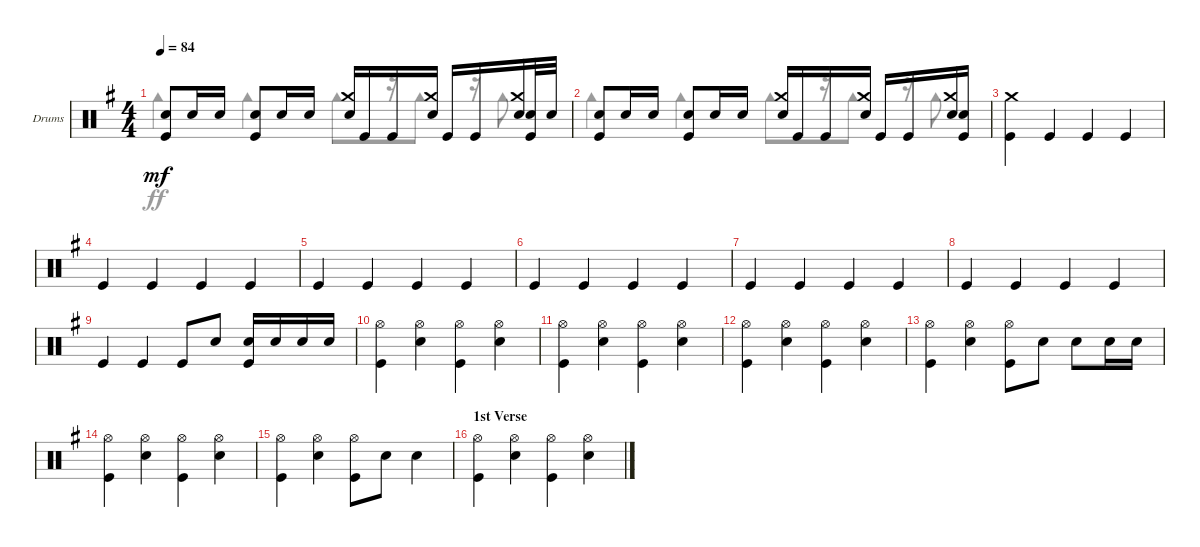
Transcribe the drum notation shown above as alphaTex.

\bracketExtendMode groupsimilarinstruments
\firstSystemTrackNameOrientation horizontal
\otherSystemsTrackNameOrientation horizontal
\track ("Drumkit" "Drums") {instrument percussion}
\staff {score}
\articulation defaults
\voice
\ts (4 4)
\tempo 84
\clef neutral
\scale
1.04288
\ks g
("Snare (hit) 2" "Kick (hit)").8{dy mf} "Snare (hit) 2".16 "Snare (hit) 2".16 ("Snare (hit) 2" "Kick (hit)").8 "Snare (hit) 2".16 "Snare (hit) 2".16 ("Crash medium (hit)" "Snare (hit) 2").16 "Kick (hit)".16 "Kick (hit)".16 ("Crash medium (hit)" "Snare (hit) 2").16 "Kick (hit)".16 "Kick (hit)".16 ("Crash medium (hit)" "Snare (hit) 2").16 ("Snare (hit) 2" "Kick (hit)").32 "Snare (hit) 2".32 |
\scale
0.957125 ("Snare (hit) 2" "Kick (hit)").8 "Snare (hit) 2".16 "Snare (hit) 2".16 ("Snare (hit) 2" "Kick (hit)").8 "Snare (hit) 2".16 "Snare (hit) 2".16 ("Crash medium (hit)" "Snare (hit) 2").16 "Kick (hit)".16 "Kick (hit)".16 ("Crash medium (hit)" "Snare (hit) 2").16 "Kick (hit)".16 "Kick (hit)".16 ("Crash medium (hit)" "Snare (hit) 2").16 ("Snare (hit) 2" "Kick (hit)").16 |
\scale
1.04288 ("Crash medium (hit)" "Kick (hit)").4 "Kick (hit)".4 "Kick (hit)".4 "Kick (hit)".4 |
\scale
0.957125 "Kick (hit)".4 "Kick (hit)".4 "Kick (hit)".4 "Kick (hit)".4 |
\scale
1.04288 "Kick (hit)".4 "Kick (hit)".4 "Kick (hit)".4 "Kick (hit)".4 |
\scale
0.957125 "Kick (hit)".4 "Kick (hit)".4 "Kick (hit)".4 "Kick (hit)".4 |
\scale
1.04288 "Kick (hit)".4 "Kick (hit)".4 "Kick (hit)".4 "Kick (hit)".4 |
\scale
0.957125 "Kick (hit)".4 "Kick (hit)".4 "Kick (hit)".4 "Kick (hit)".4 |
\scale
1.04288 "Kick (hit)".4 "Kick (hit)".4 "Kick (hit)".8 "Snare (hit) 2".8 ("Snare (hit) 2" "Kick (hit)").16 "Snare (hit) 2".16 "Snare (hit) 2".16 "Snare (hit) 2".16 |
\scale
0.957125 ("Hi-Hat (open)" "Kick (hit)").4 ("Hi-Hat (open)" "Snare (hit) 2").4 ("Hi-Hat (open)" "Kick (hit)").4 ("Hi-Hat (open)" "Snare (hit) 2").4 |
\scale
1.04288 ("Hi-Hat (open)" "Kick (hit)").4 ("Hi-Hat (open)" "Snare (hit) 2").4 ("Hi-Hat (open)" "Kick (hit)").4 ("Hi-Hat (open)" "Snare (hit) 2").4 |
\scale
0.957125 ("Hi-Hat (open)" "Kick (hit)").4 ("Hi-Hat (open)" "Snare (hit) 2").4 ("Hi-Hat (open)" "Kick (hit)").4 ("Hi-Hat (open)" "Snare (hit) 2").4 |
\scale
1.04288 ("Hi-Hat (open)" "Kick (hit)").4 ("Hi-Hat (open)" "Snare (hit) 2").4 ("Hi-Hat (open)" "Kick (hit)").8 "Snare (hit) 2".8 "Snare (hit) 2".8 "Snare (hit) 2".16 "Snare (hit) 2".16 |
\scale
0.957125 ("Hi-Hat (open)" "Kick (hit)").4 ("Hi-Hat (open)" "Snare (hit) 2").4 ("Hi-Hat (open)" "Kick (hit)").4 ("Hi-Hat (open)" "Snare (hit) 2").4 |
\scale
1.04288 ("Hi-Hat (open)" "Kick (hit)").4 ("Hi-Hat (open)" "Snare (hit) 2").4 ("Hi-Hat (open)" "Kick (hit)").8 "Snare (hit) 2".8 "Snare (hit) 2".4 |
\section ("" "1st Verse")
\scale
0.957125 ("Hi-Hat (open)" "Kick (hit)").4 ("Hi-Hat (open)" "Snare (hit) 2").4 ("Hi-Hat (open)" "Kick (hit)").4 ("Hi-Hat (open)" "Snare (hit) 2").4
\voice
\clef neutral
\ottava regular
\simile none
\scale
1.04288
\ks g "Cowbell high (hit)".4{dy ff} "Cowbell high (hit)".4 "Cowbell high (hit)".8
r.16 "Cowbell high (hit)".8 r.16 "Cowbell high (hit)".8 |
\scale
0.957125 "Cowbell high (hit)".4 "Cowbell high (hit)".4 "Cowbell high (hit)".8 r.16 "Cowbell high (hit)".8 r.16 "Cowbell high (hit)".8 |
\scale
1.04288 |
\scale
0.957125 |
\scale
1.04288 |
\scale
0.957125 |
\scale
1.04288 |
\scale
0.957125 |
\scale
1.04288 |
\scale
0.957125 |
\scale
1.04288 |
\scale
0.957125 |
\scale
1.04288 |
\scale
0.957125 |
\scale
1.04288 |
\scale
0.957125
